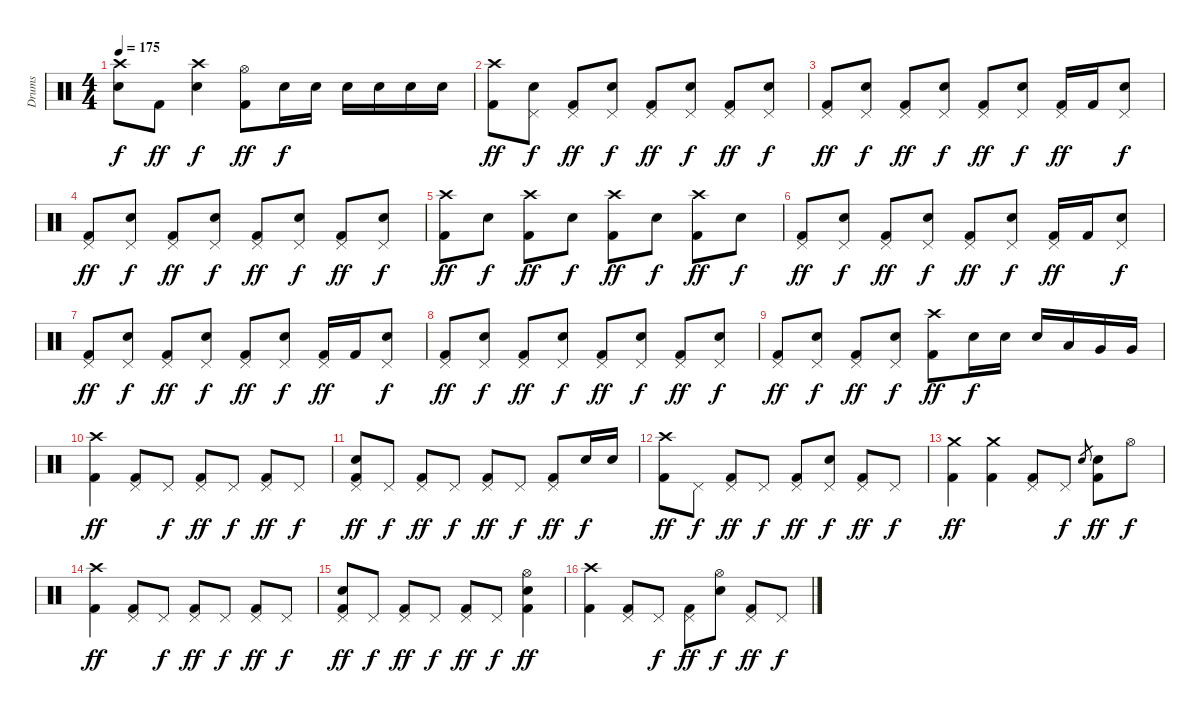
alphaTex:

\track ("Drums" "Drums") {instrument percussion}
\staff {score}
\articulation defaults
\ts (4 4)
\tempo 175
\clef neutral
\ks c
("Crash high (hit)" "Electric Snare (hit)").8{dy f} "Kick (hit) 2".8{dy ff} ("Crash high (hit)" "Electric Snare (hit)").4{dy f} ("Hi-Hat (open)" "Kick (hit) 2").8{dy ff} "Electric Snare (hit)".16{dy f} "Electric Snare (hit)".16 "Electric Snare (hit)".16 "Electric Snare (hit)".16 "Electric Snare (hit)".16 "Electric Snare (hit)".16 |
("Crash high (hit)" "Kick (hit) 2").8{dy ff} ("Pedal Hi-Hat (hit)" "Electric Snare (hit)").8{dy f} ("Pedal Hi-Hat (hit)" "Kick (hit) 2").8{dy ff} ("Pedal Hi-Hat (hit)" "Electric Snare (hit)").8{dy f} ("Pedal Hi-Hat (hit)" "Kick (hit) 2").8{dy ff} ("Pedal Hi-Hat (hit)" "Electric Snare (hit)").8{dy f} ("Pedal Hi-Hat (hit)" "Kick (hit) 2").8{dy ff} ("Pedal Hi-Hat (hit)" "Electric Snare (hit)").8{dy f} |
("Pedal Hi-Hat (hit)" "Kick (hit) 2").8{dy ff} ("Pedal Hi-Hat (hit)" "Electric Snare (hit)").8{dy f} ("Pedal Hi-Hat (hit)" "Kick (hit) 2").8{dy ff} ("Pedal Hi-Hat (hit)" "Electric Snare (hit)").8{dy f} ("Pedal Hi-Hat (hit)" "Kick (hit) 2").8{dy ff} ("Pedal Hi-Hat (hit)" "Electric Snare (hit)").8{dy f} ("Pedal Hi-Hat (hit)" "Kick (hit) 2").16{dy ff} "Kick (hit) 2".16 ("Pedal Hi-Hat (hit)" "Electric Snare (hit)").8{dy f} |
("Pedal Hi-Hat (hit)" "Kick (hit) 2").8{dy ff} ("Pedal Hi-Hat (hit)" "Electric Snare (hit)").8{dy f} ("Pedal Hi-Hat (hit)" "Kick (hit) 2").8{dy ff} ("Pedal Hi-Hat (hit)" "Electric Snare (hit)").8{dy f} ("Pedal Hi-Hat (hit)" "Kick (hit) 2").8{dy ff} ("Pedal Hi-Hat (hit)" "Electric Snare (hit)").8{dy f} ("Pedal Hi-Hat (hit)" "Kick (hit) 2").8{dy ff} ("Pedal Hi-Hat (hit)" "Electric Snare (hit)").8{dy f} |
("Crash high (hit)" "Kick (hit) 2").8{dy ff} "Electric Snare (hit)".8{dy f} ("Crash high (hit)" "Kick (hit) 2").8{dy ff} "Electric Snare (hit)".8{dy f} ("Crash high (hit)" "Kick (hit) 2").8{dy ff} "Electric Snare (hit)".8{dy f} ("Crash high (hit)" "Kick (hit) 2").8{dy ff} "Electric Snare (hit)".8{dy f} |
("Pedal Hi-Hat (hit)" "Kick (hit) 2").8{dy ff} ("Pedal Hi-Hat (hit)" "Electric Snare (hit)").8{dy f} ("Pedal Hi-Hat (hit)" "Kick (hit) 2").8{dy ff} ("Pedal Hi-Hat (hit)" "Electric Snare (hit)").8{dy f} ("Pedal Hi-Hat (hit)" "Kick (hit) 2").8{dy ff} ("Pedal Hi-Hat (hit)" "Electric Snare (hit)").8{dy f} ("Pedal Hi-Hat (hit)" "Kick (hit) 2").16{dy ff} "Kick (hit) 2".16 ("Pedal Hi-Hat (hit)" "Electric Snare (hit)").8{dy f} |
("Pedal Hi-Hat (hit)" "Kick (hit) 2").8{dy ff} ("Pedal Hi-Hat (hit)" "Electric Snare (hit)").8{dy f} ("Pedal Hi-Hat (hit)" "Kick (hit) 2").8{dy ff} ("Pedal Hi-Hat (hit)" "Electric Snare (hit)").8{dy f} ("Pedal Hi-Hat (hit)" "Kick (hit) 2").8{dy ff} ("Pedal Hi-Hat (hit)" "Electric Snare (hit)").8{dy f} ("Pedal Hi-Hat (hit)" "Kick (hit) 2").16{dy ff} "Kick (hit) 2".16 ("Pedal Hi-Hat (hit)" "Electric Snare (hit)").8{dy f} |
("Pedal Hi-Hat (hit)" "Kick (hit) 2").8{dy ff} ("Pedal Hi-Hat (hit)" "Electric Snare (hit)").8{dy f} ("Pedal Hi-Hat (hit)" "Kick (hit) 2").8{dy ff} ("Pedal Hi-Hat (hit)" "Electric Snare (hit)").8{dy f} ("Pedal Hi-Hat (hit)" "Kick (hit) 2").8{dy ff} ("Pedal Hi-Hat (hit)" "Electric Snare (hit)").8{dy f} ("Pedal Hi-Hat (hit)" "Kick (hit) 2").8{dy ff} ("Pedal Hi-Hat (hit)" "Electric Snare (hit)").8{dy f} |
("Pedal Hi-Hat (hit)" "Kick (hit) 2").8{dy ff} ("Pedal Hi-Hat (hit)" "Electric Snare (hit)").8{dy f} ("Pedal Hi-Hat (hit)" "Kick (hit) 2").8{dy ff} ("Pedal Hi-Hat (hit)" "Electric Snare (hit)").8{dy f} ("Crash high (hit)" "Kick (hit) 2").8{dy ff} "Electric Snare (hit)".16{dy f} "Electric Snare (hit)".16 "Electric Snare (hit)".16 "Low Tom (hit)".16 "Very Low Tom (hit)".16 "Very Low Tom (hit)".16 |
("Crash high (hit)" "Kick (hit) 2").4{dy ff} ("Pedal Hi-Hat (hit)" "Kick (hit) 2").8 "Pedal Hi-Hat (hit)".8{dy f} ("Pedal Hi-Hat (hit)" "Kick (hit) 2").8{dy ff} "Pedal Hi-Hat (hit)".8{dy f} ("Pedal Hi-Hat (hit)" "Kick (hit) 2").8{dy ff} "Pedal Hi-Hat (hit)".8{dy f} |
("Pedal Hi-Hat (hit)" "Electric Snare (hit)" "Kick (hit) 2").8{dy ff} "Pedal Hi-Hat (hit)".8{dy f} ("Pedal Hi-Hat (hit)" "Kick (hit) 2").8{dy ff} "Pedal Hi-Hat (hit)".8{dy f} ("Pedal Hi-Hat (hit)" "Kick (hit) 2").8{dy ff} "Pedal Hi-Hat (hit)".8{dy f} ("Pedal Hi-Hat (hit)" "Kick (hit) 2").8{dy ff} "Electric Snare (hit)".16{dy f} "Electric Snare (hit)".16 |
("Crash high (hit)" "Kick (hit) 2").8{dy ff} "Pedal Hi-Hat (hit)".8{dy f} ("Pedal Hi-Hat (hit)" "Kick (hit) 2").8{dy ff} "Pedal Hi-Hat (hit)".8{dy f} ("Pedal Hi-Hat (hit)" "Kick (hit) 2").8{dy ff} ("Pedal Hi-Hat (hit)" "Electric Snare (hit)").8{dy f} ("Pedal Hi-Hat (hit)" "Kick (hit) 2").8{dy ff} "Pedal Hi-Hat (hit)".8{dy f} |
("Crash medium (hit)" "Kick (hit) 2").4{dy ff} ("Crash medium (hit)" "Kick (hit) 2").4 ("Pedal Hi-Hat (hit)" "Kick (hit) 2").8 "Pedal Hi-Hat (hit)".8{dy f} "Electric Snare (hit)".8{gr} ("Electric Snare (hit)" "Kick (hit) 2").8{dy ff} "Hi-Hat (open)".8{dy f} |
("Crash high (hit)" "Kick (hit) 2").4{dy ff} ("Pedal Hi-Hat (hit)" "Kick (hit) 2").8 "Pedal Hi-Hat (hit)".8{dy f} ("Pedal Hi-Hat (hit)" "Kick (hit) 2").8{dy ff} "Pedal Hi-Hat (hit)".8{dy f} ("Pedal Hi-Hat (hit)" "Kick (hit) 2").8{dy ff} "Pedal Hi-Hat (hit)".8{dy f} |
("Pedal Hi-Hat (hit)" "Electric Snare (hit)" "Kick (hit) 2").8{dy ff} "Pedal Hi-Hat (hit)".8{dy f} ("Pedal Hi-Hat (hit)" "Kick (hit) 2").8{dy ff} "Pedal Hi-Hat (hit)".8{dy f} ("Pedal Hi-Hat (hit)" "Kick (hit) 2").8{dy ff} "Pedal Hi-Hat (hit)".8{dy f} ("Hi-Hat (open)" "Electric Snare (hit)" "Kick (hit) 2").4{dy ff} |
("Crash high (hit)" "Kick (hit) 2").4 ("Pedal Hi-Hat (hit)" "Kick (hit) 2").8 "Pedal Hi-Hat (hit)".8{dy f} ("Pedal Hi-Hat (hit)" "Kick (hit) 2").8{dy ff} ("Hi-Hat (open)" "Electric Snare (hit)").8{dy f} ("Pedal Hi-Hat (hit)" "Kick (hit) 2").8{dy ff} "Pedal Hi-Hat (hit)".8{dy f}
